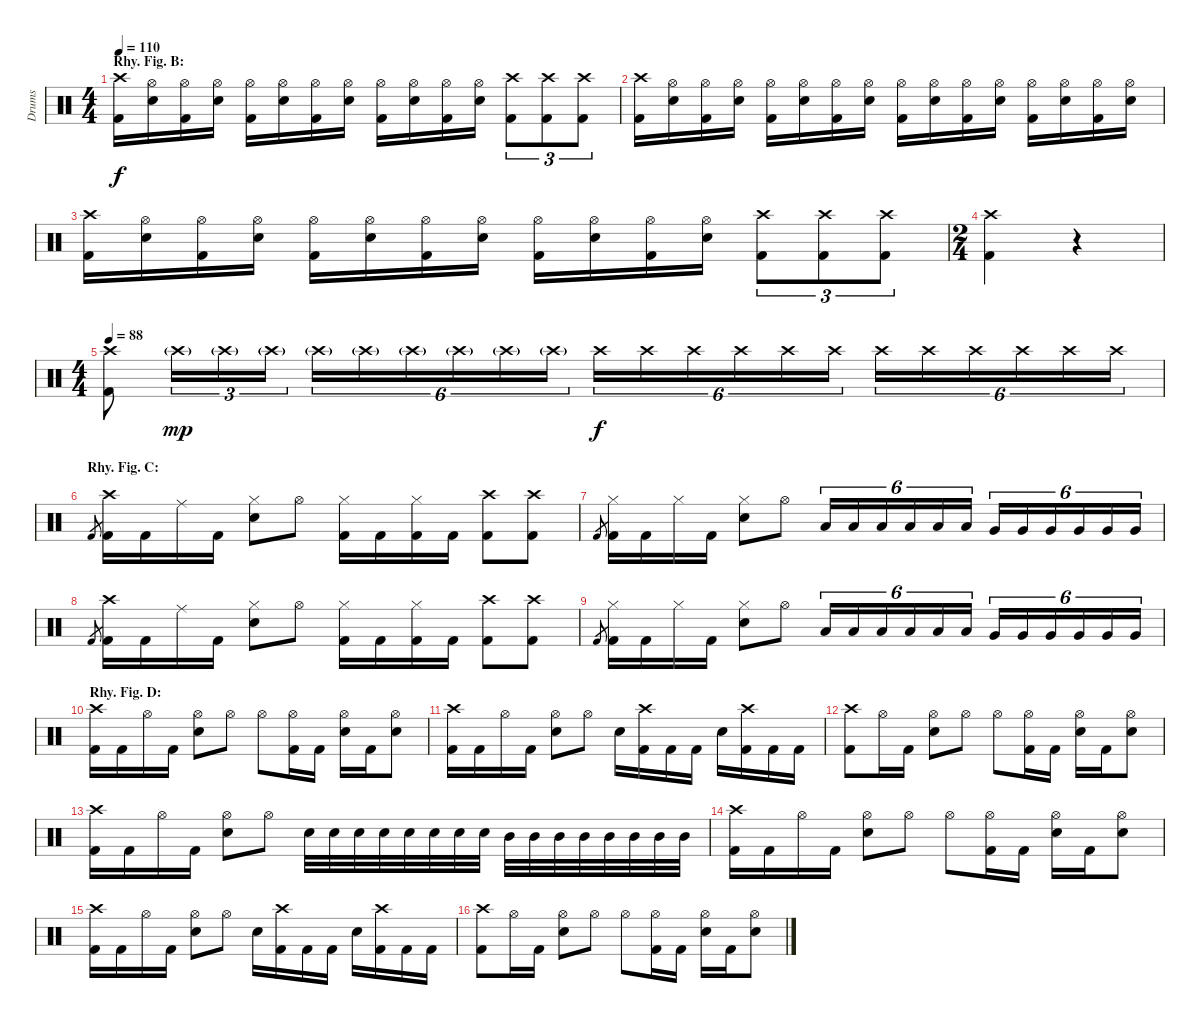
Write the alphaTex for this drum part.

\track ("Drums" "Drums") {instrument percussion}
\staff {score}
\articulation defaults
\ts (4 4)
\section ("" "Rhy. Fig. B:")
\tempo 110
\clef neutral
\ks c
("Crash high (hit)" "Kick (hit) 2").16{dy f} ("Hi-Hat (open)" "Electric Snare (hit)").16 ("Hi-Hat (open)" "Kick (hit) 2").16 ("Hi-Hat (open)" "Electric Snare (hit)").16 ("Hi-Hat (open)" "Kick (hit) 2").16 ("Hi-Hat (open)" "Electric Snare (hit)").16 ("Hi-Hat (open)" "Kick (hit) 2").16 ("Hi-Hat (open)" "Electric Snare (hit)").16 ("Hi-Hat (open)" "Kick (hit) 2").16 ("Hi-Hat (open)" "Electric Snare (hit)").16 ("Hi-Hat (open)" "Kick (hit) 2").16 ("Hi-Hat (open)" "Electric Snare (hit)").16 ("Crash high (hit)" "Kick (hit) 2").8{tu (3 2)} ("Crash high (hit)" "Kick (hit) 2").8{tu (3 2)} ("Crash high (hit)" "Kick (hit) 2").8{tu (3 2)} |
("Crash high (hit)" "Kick (hit) 2").16 ("Hi-Hat (open)" "Electric Snare (hit)").16 ("Hi-Hat (open)" "Kick (hit) 2").16 ("Hi-Hat (open)" "Electric Snare (hit)").16 ("Hi-Hat (open)" "Kick (hit) 2").16 ("Hi-Hat (open)" "Electric Snare (hit)").16 ("Hi-Hat (open)" "Kick (hit) 2").16 ("Hi-Hat (open)" "Electric Snare (hit)").16 ("Hi-Hat (open)" "Kick (hit) 2").16 ("Hi-Hat (open)" "Electric Snare (hit)").16 ("Hi-Hat (open)" "Kick (hit) 2").16 ("Hi-Hat (open)" "Electric Snare (hit)").16 ("Hi-Hat (open)" "Kick (hit) 2").16 ("Hi-Hat (open)" "Electric Snare (hit)").16 ("Hi-Hat (open)" "Kick (hit) 2").16 ("Hi-Hat (open)" "Electric Snare (hit)").16 |
("Crash high (hit)" "Kick (hit) 2").16 ("Hi-Hat (open)" "Electric Snare (hit)").16 ("Hi-Hat (open)" "Kick (hit) 2").16 ("Hi-Hat (open)" "Electric Snare (hit)").16 ("Hi-Hat (open)" "Kick (hit) 2").16 ("Hi-Hat (open)" "Electric Snare (hit)").16 ("Hi-Hat (open)" "Kick (hit) 2").16 ("Hi-Hat (open)" "Electric Snare (hit)").16 ("Hi-Hat (open)" "Kick (hit) 2").16 ("Hi-Hat (open)" "Electric Snare (hit)").16 ("Hi-Hat (open)" "Kick (hit) 2").16 ("Hi-Hat (open)" "Electric Snare (hit)").16 ("Crash high (hit)" "Kick (hit) 2").8{tu (3 2)} ("Crash high (hit)" "Kick (hit) 2").8{tu (3 2)} ("Crash high (hit)" "Kick (hit) 2").8{tu (3 2)} |
\ts (2 4)
("Crash high (hit)" "Kick (hit) 2").4 r.4 |
\ts (4 4)
\tempo 88
("Crash high (hit)" "Kick (hit) 2").8 "Crash high (hit)"{g}.16{tu (3 2) dy mp} "Crash high (hit)"{g}.16{tu (3 2)} "Crash high (hit)"{g}.16{tu (3 2)} "Crash high (hit)"{g}.16{tu (6 4)} "Crash high (hit)"{g}.16{tu (6 4)} "Crash high (hit)"{g}.16{tu (6 4)} "Crash high (hit)"{g}.16{tu (6 4)} "Crash high (hit)"{g}.16{tu (6 4)} "Crash high (hit)"{g}.16{tu (6 4)} "Crash high (hit)".16{tu (6 4) dy f} "Crash high (hit)".16{tu (6 4)} "Crash high (hit)".16{tu (6 4)} "Crash high (hit)".16{tu (6 4)} "Crash high (hit)".16{tu (6 4)} "Crash high (hit)".16{tu (6 4)} "Crash high (hit)".16{tu (6 4)} "Crash high (hit)".16{tu (6 4)} "Crash high (hit)".16{tu (6 4)} "Crash high (hit)".16{tu (6 4)} "Crash high (hit)".16{tu (6 4)} "Crash high (hit)".16{tu (6 4)} |
\section ("" "Rhy. Fig. C:")
"Kick (hit) 2".8{gr} ("Crash high (hit)" "Kick (hit) 2").16 "Kick (hit) 2".16 "Ride (middle)".16 "Kick (hit) 2".16 ("Hi-Hat (closed)" "Electric Snare (hit)").8 "Hi-Hat (open)".8 ("Hi-Hat (closed)" "Kick (hit) 2").16 "Kick (hit) 2".16 ("Hi-Hat (closed)" "Kick (hit) 2").16 "Kick (hit) 2".16 ("Crash high (hit)" "Kick (hit) 2").8 ("Crash high (hit)" "Kick (hit) 2").8 |
"Kick (hit) 2".8{gr} ("Hi-Hat (closed)" "Kick (hit) 2").16 "Kick (hit) 2".16 "Hi-Hat (closed)".16 "Kick (hit) 2".16 ("Hi-Hat (closed)" "Electric Snare (hit)").8 "Hi-Hat (open)".8 "Low Tom (hit)".16{tu (6 4)} "Low Tom (hit)".16{tu (6 4)} "Low Tom (hit)".16{tu (6 4)} "Low Tom (hit)".16{tu (6 4)} "Low Tom (hit)".16{tu (6 4)} "Low Tom (hit)".16{tu (6 4)} "Very Low Tom (hit)".16{tu (6 4)} "Very Low Tom (hit)".16{tu (6 4)} "Very Low Tom (hit)".16{tu (6 4)} "Very Low Tom (hit)".16{tu (6 4)} "Very Low Tom (hit)".16{tu (6 4)} "Very Low Tom (hit)".16{tu (6 4)} |
"Kick (hit) 2".8{gr} ("Crash high (hit)" "Kick (hit) 2").16 "Kick (hit) 2".16 "Ride (middle)".16 "Kick (hit) 2".16 ("Hi-Hat (closed)" "Electric Snare (hit)").8 "Hi-Hat (open)".8 ("Hi-Hat (closed)" "Kick (hit) 2").16 "Kick (hit) 2".16 ("Hi-Hat (closed)" "Kick (hit) 2").16 "Kick (hit) 2".16 ("Crash high (hit)" "Kick (hit) 2").8 ("Crash high (hit)" "Kick (hit) 2").8 |
"Kick (hit) 2".8{gr} ("Hi-Hat (closed)" "Kick (hit) 2").16 "Kick (hit) 2".16 "Hi-Hat (closed)".16 "Kick (hit) 2".16 ("Hi-Hat (closed)" "Electric Snare (hit)").8 "Hi-Hat (open)".8 "Low Tom (hit)".16{tu (6 4)} "Low Tom (hit)".16{tu (6 4)} "Low Tom (hit)".16{tu (6 4)} "Low Tom (hit)".16{tu (6 4)} "Low Tom (hit)".16{tu (6 4)} "Low Tom (hit)".16{tu (6 4)} "Very Low Tom (hit)".16{tu (6 4)} "Very Low Tom (hit)".16{tu (6 4)} "Very Low Tom (hit)".16{tu (6 4)} "Very Low Tom (hit)".16{tu (6 4)} "Very Low Tom (hit)".16{tu (6 4)} "Very Low Tom (hit)".16{tu (6 4)} |
\section ("" "Rhy. Fig. D:")
("Crash high (hit)" "Kick (hit) 2").16 "Kick (hit) 2".16 "Hi-Hat (open)".16 "Kick (hit) 2".16 ("Hi-Hat (open)" "Electric Snare (hit)").8 "Hi-Hat (open)".8 "Hi-Hat (open)".8 ("Hi-Hat (open)" "Kick (hit) 2").16 "Kick (hit) 2".16 ("Hi-Hat (open)" "Electric Snare (hit)").16 "Kick (hit) 2".16 ("Hi-Hat (open)" "Electric Snare (hit)").8 |
("Crash high (hit)" "Kick (hit) 2").16 "Kick (hit) 2".16 "Hi-Hat (open)".16 "Kick (hit) 2".16 ("Hi-Hat (open)" "Electric Snare (hit)").8 "Hi-Hat (open)".8 "Electric Snare (hit)".16 ("Crash high (hit)" "Kick (hit) 2").16 "Kick (hit) 2".16 "Kick (hit) 2".16 "Electric Snare (hit)".16 ("Crash high (hit)" "Kick (hit) 2").16 "Kick (hit) 2".16 "Kick (hit) 2".16 |
("Crash high (hit)" "Kick (hit) 2").8 "Hi-Hat (open)".16 "Kick (hit) 2".16 ("Hi-Hat (open)" "Electric Snare (hit)").8 "Hi-Hat (open)".8 "Hi-Hat (open)".8 ("Hi-Hat (open)" "Kick (hit) 2").16 "Kick (hit) 2".16 ("Hi-Hat (open)" "Electric Snare (hit)").16 "Kick (hit) 2".16 ("Hi-Hat (open)" "Electric Snare (hit)").8 |
("Crash high (hit)" "Kick (hit) 2").16 "Kick (hit) 2".16 "Hi-Hat (open)".16 "Kick (hit) 2".16 ("Hi-Hat (open)" "Electric Snare (hit)").8 "Hi-Hat (open)".8 "Electric Snare (hit)".32 "Electric Snare (hit)".32 "Electric Snare (hit)".32 "Electric Snare (hit)".32 "Electric Snare (hit)".32 "Electric Snare (hit)".32 "Electric Snare (hit)".32 "Electric Snare (hit)".32 "Mid Tom (hit)".32 "Mid Tom (hit)".32 "Mid Tom (hit)".32 "Mid Tom (hit)".32 "Mid Tom (hit)".32 "Mid Tom (hit)".32 "Mid Tom (hit)".32 "Mid Tom (hit)".32 |
("Crash high (hit)" "Kick (hit) 2").16 "Kick (hit) 2".16 "Hi-Hat (open)".16 "Kick (hit) 2".16 ("Hi-Hat (open)" "Electric Snare (hit)").8 "Hi-Hat (open)".8 "Hi-Hat (open)".8 ("Hi-Hat (open)" "Kick (hit) 2").16 "Kick (hit) 2".16 ("Hi-Hat (open)" "Electric Snare (hit)").16 "Kick (hit) 2".16 ("Hi-Hat (open)" "Electric Snare (hit)").8 |
("Crash high (hit)" "Kick (hit) 2").16 "Kick (hit) 2".16 "Hi-Hat (open)".16 "Kick (hit) 2".16 ("Hi-Hat (open)" "Electric Snare (hit)").8 "Hi-Hat (open)".8 "Electric Snare (hit)".16 ("Crash high (hit)" "Kick (hit) 2").16 "Kick (hit) 2".16 "Kick (hit) 2".16 "Electric Snare (hit)".16 ("Crash high (hit)" "Kick (hit) 2").16 "Kick (hit) 2".16 "Kick (hit) 2".16 |
("Crash high (hit)" "Kick (hit) 2").8 "Hi-Hat (open)".16 "Kick (hit) 2".16 ("Hi-Hat (open)" "Electric Snare (hit)").8 "Hi-Hat (open)".8 "Hi-Hat (open)".8 ("Hi-Hat (open)" "Kick (hit) 2").16 "Kick (hit) 2".16 ("Hi-Hat (open)" "Electric Snare (hit)").16 "Kick (hit) 2".16 ("Hi-Hat (open)" "Electric Snare (hit)").8
